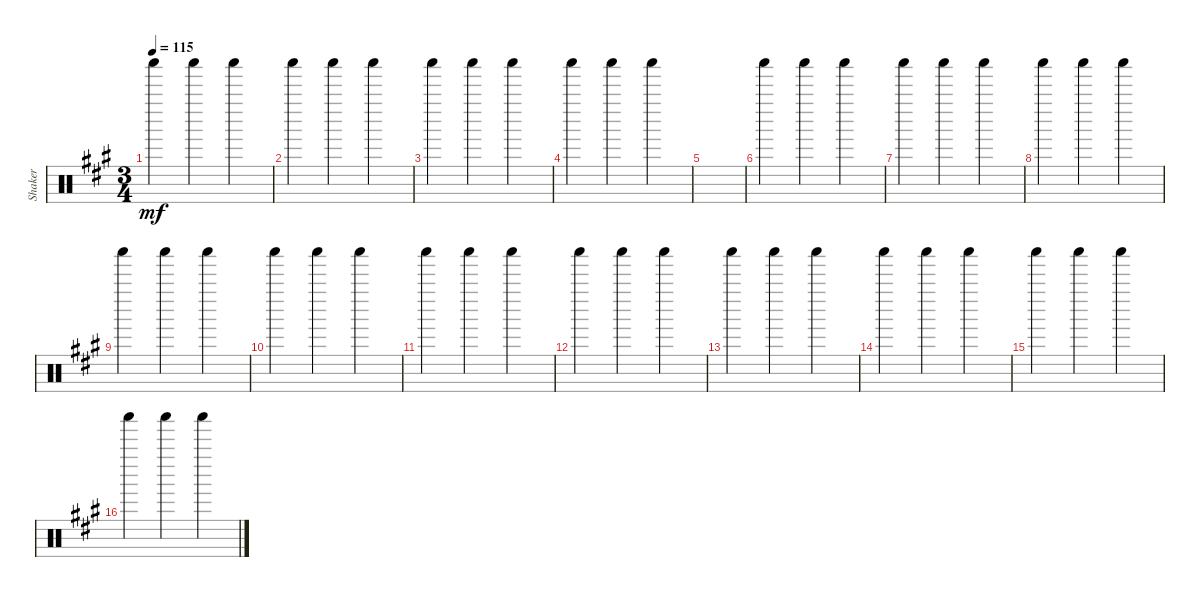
\track ("Shaker" "Shaker") {instrument percussion}
\staff {score}
\articulation defaults
\ts (3 4)
\tempo 115
\clef neutral
\ks a "Shaker (hit)".4{dy mf} "Shaker (hit)".4 "Shaker (hit)".4
|
"Shaker (hit)".4 "Shaker (hit)".4 "Shaker (hit)".4 |
"Shaker (hit)".4 "Shaker (hit)".4 "Shaker (hit)".4 |
"Shaker (hit)".4 "Shaker (hit)".4 "Shaker (hit)".4 |
|
"Shaker (hit)".4 "Shaker (hit)".4 "Shaker (hit)".4 |
"Shaker (hit)".4 "Shaker (hit)".4 "Shaker (hit)".4 |
"Shaker (hit)".4 "Shaker (hit)".4 "Shaker (hit)".4 |
"Shaker (hit)".4 "Shaker (hit)".4 "Shaker (hit)".4 |
"Shaker (hit)".4 "Shaker (hit)".4 "Shaker (hit)".4 |
"Shaker (hit)".4 "Shaker (hit)".4 "Shaker (hit)".4 |
"Shaker (hit)".4 "Shaker (hit)".4 "Shaker (hit)".4 |
"Shaker (hit)".4 "Shaker (hit)".4 "Shaker (hit)".4 |
"Shaker (hit)".4 "Shaker (hit)".4 "Shaker (hit)".4 |
"Shaker (hit)".4 "Shaker (hit)".4 "Shaker (hit)".4 |
"Shaker (hit)".4 "Shaker (hit)".4 "Shaker (hit)".4
